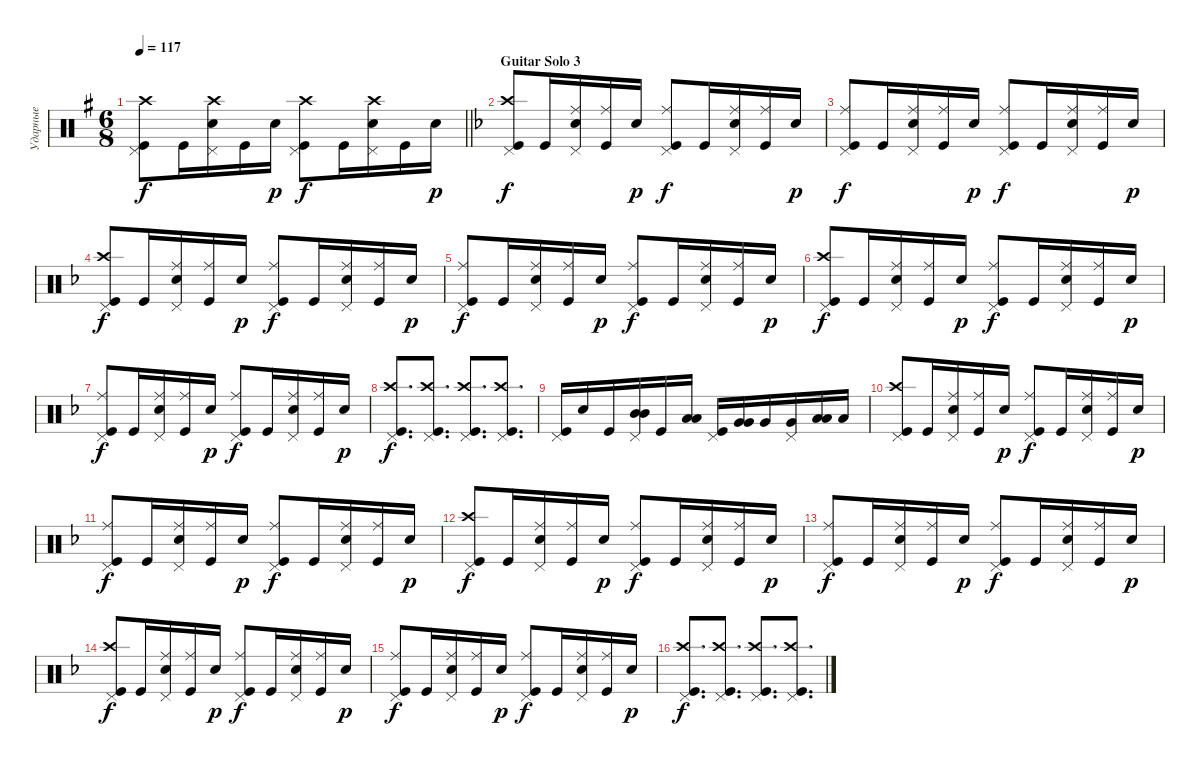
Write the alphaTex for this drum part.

\track ("Ударные" "Ударные") {instrument percussion}
\staff {score}
\articulation defaults
\ts (6 8)
\tempo 117
\clef neutral
\barLineRight lightlight
\ks eminor
("Kick (hit)" "Crash high (hit)" "Pedal Hi-Hat (hit)").8{dy f} "Kick (hit)".16 ("Snare (hit) 2" "Crash high (hit)" "Pedal Hi-Hat (hit)").16 "Kick (hit)".16 "Snare (hit) 2".16{dy p} ("Kick (hit)" "Crash high (hit)" "Pedal Hi-Hat (hit)").8{dy f} "Kick (hit)".16 ("Snare (hit) 2" "Crash high (hit)" "Pedal Hi-Hat (hit)").16 "Kick (hit)".16 "Snare (hit) 2".16{dy p} |
\section ("" "Guitar Solo 3")
\ks dminor
("Kick (hit)" "Crash high (hit)" "Pedal Hi-Hat (hit)").8{dy f} "Kick (hit)".16 ("Snare (hit) 2" "Ride (middle)" "Pedal Hi-Hat (hit)").16 ("Kick (hit)" "Ride (middle)").16 "Snare (hit) 2".16{dy p} ("Kick (hit)" "Ride (middle)" "Pedal Hi-Hat (hit)").8{dy f} "Kick (hit)".16 ("Snare (hit) 2" "Ride (middle)" "Pedal Hi-Hat (hit)").16 ("Kick (hit)" "Ride (middle)").16 "Snare (hit) 2".16{dy p} |
("Kick (hit)" "Ride (middle)" "Pedal Hi-Hat (hit)").8{dy f} "Kick (hit)".16 ("Snare (hit) 2" "Ride (middle)" "Pedal Hi-Hat (hit)").16 ("Kick (hit)" "Ride (middle)").16 "Snare (hit) 2".16{dy p} ("Kick (hit)" "Ride (middle)" "Pedal Hi-Hat (hit)").8{dy f} "Kick (hit)".16 ("Snare (hit) 2" "Ride (middle)" "Pedal Hi-Hat (hit)").16 ("Kick (hit)" "Ride (middle)").16 "Snare (hit) 2".16{dy p} |
("Kick (hit)" "Crash high (hit)" "Pedal Hi-Hat (hit)").8{dy f} "Kick (hit)".16 ("Snare (hit) 2" "Ride (middle)" "Pedal Hi-Hat (hit)").16 ("Kick (hit)" "Ride (middle)").16 "Snare (hit) 2".16{dy p} ("Kick (hit)" "Ride (middle)" "Pedal Hi-Hat (hit)").8{dy f} "Kick (hit)".16 ("Snare (hit) 2" "Ride (middle)" "Pedal Hi-Hat (hit)").16 ("Kick (hit)" "Ride (middle)").16 "Snare (hit) 2".16{dy p} |
("Kick (hit)" "Ride (middle)" "Pedal Hi-Hat (hit)").8{dy f} "Kick (hit)".16 ("Snare (hit) 2" "Ride (middle)" "Pedal Hi-Hat (hit)").16 ("Kick (hit)" "Ride (middle)").16 "Snare (hit) 2".16{dy p} ("Kick (hit)" "Ride (middle)" "Pedal Hi-Hat (hit)").8{dy f} "Kick (hit)".16 ("Snare (hit) 2" "Ride (middle)" "Pedal Hi-Hat (hit)").16 ("Kick (hit)" "Ride (middle)").16 "Snare (hit) 2".16{dy p} |
("Kick (hit)" "Crash high (hit)" "Pedal Hi-Hat (hit)").8{dy f} "Kick (hit)".16 ("Snare (hit) 2" "Ride (middle)" "Pedal Hi-Hat (hit)").16 ("Kick (hit)" "Ride (middle)").16 "Snare (hit) 2".16{dy p} ("Kick (hit)" "Ride (middle)" "Pedal Hi-Hat (hit)").8{dy f} "Kick (hit)".16 ("Snare (hit) 2" "Ride (middle)" "Pedal Hi-Hat (hit)").16 ("Kick (hit)" "Ride (middle)").16 "Snare (hit) 2".16{dy p} |
("Kick (hit)" "Ride (middle)" "Pedal Hi-Hat (hit)").8{dy f} "Kick (hit)".16 ("Snare (hit) 2" "Ride (middle)" "Pedal Hi-Hat (hit)").16 ("Kick (hit)" "Ride (middle)").16 "Snare (hit) 2".16{dy p} ("Kick (hit)" "Ride (middle)" "Pedal Hi-Hat (hit)").8{dy f} "Kick (hit)".16 ("Snare (hit) 2" "Ride (middle)" "Pedal Hi-Hat (hit)").16 ("Kick (hit)" "Ride (middle)").16 "Snare (hit) 2".16{dy p} |
("Kick (hit)" "Crash high (hit)" "Pedal Hi-Hat (hit)").8{d dy f} ("Kick (hit)" "Crash high (hit)" "Pedal Hi-Hat (hit)").8{d} ("Kick (hit)" "Crash high (hit)" "Pedal Hi-Hat (hit)").8{d} ("Kick (hit)" "Crash high (hit)" "Pedal Hi-Hat (hit)").8{d} |
("Kick (hit)" "Pedal Hi-Hat (hit)").16 "Snare (hit) 2".16 "Kick (hit)".16 ("Mid Tom (hit)" "Mid Tom (hit)" "Pedal Hi-Hat (hit)").16 "Kick (hit)".16 ("Low Tom (hit)" "Low Tom (hit)").16 ("Kick (hit)" "Pedal Hi-Hat (hit)").16 ("Very Low Tom (hit)" "Very Low Tom (hit)").16{bd 240} "Very Low Tom (hit)".16 ("Very Low Tom (hit)" "Pedal Hi-Hat (hit)").16 ("Low Floor Tom (hit)" "Low Floor Tom (hit)").16{bd 240} "Low Floor Tom (hit)".16 |
("Kick (hit)" "Crash high (hit)" "Pedal Hi-Hat (hit)").8 "Kick (hit)".16 ("Snare (hit) 2" "Ride (middle)" "Pedal Hi-Hat (hit)").16 ("Kick (hit)" "Ride (middle)").16 "Snare (hit) 2".16{dy p} ("Kick (hit)" "Ride (middle)" "Pedal Hi-Hat (hit)").8{dy f} "Kick (hit)".16 ("Snare (hit) 2" "Ride (middle)" "Pedal Hi-Hat (hit)").16 ("Kick (hit)" "Ride (middle)").16 "Snare (hit) 2".16{dy p} |
("Kick (hit)" "Ride (middle)" "Pedal Hi-Hat (hit)").8{dy f} "Kick (hit)".16 ("Snare (hit) 2" "Ride (middle)" "Pedal Hi-Hat (hit)").16 ("Kick (hit)" "Ride (middle)").16 "Snare (hit) 2".16{dy p} ("Kick (hit)" "Ride (middle)" "Pedal Hi-Hat (hit)").8{dy f} "Kick (hit)".16 ("Snare (hit) 2" "Ride (middle)" "Pedal Hi-Hat (hit)").16 ("Kick (hit)" "Ride (middle)").16 "Snare (hit) 2".16{dy p} |
("Kick (hit)" "Crash high (hit)" "Pedal Hi-Hat (hit)").8{dy f} "Kick (hit)".16 ("Snare (hit) 2" "Ride (middle)" "Pedal Hi-Hat (hit)").16 ("Kick (hit)" "Ride (middle)").16 "Snare (hit) 2".16{dy p} ("Kick (hit)" "Ride (middle)" "Pedal Hi-Hat (hit)").8{dy f} "Kick (hit)".16 ("Snare (hit) 2" "Ride (middle)" "Pedal Hi-Hat (hit)").16 ("Kick (hit)" "Ride (middle)").16 "Snare (hit) 2".16{dy p} |
("Kick (hit)" "Ride (middle)" "Pedal Hi-Hat (hit)").8{dy f} "Kick (hit)".16 ("Snare (hit) 2" "Ride (middle)" "Pedal Hi-Hat (hit)").16 ("Kick (hit)" "Ride (middle)").16 "Snare (hit) 2".16{dy p} ("Kick (hit)" "Ride (middle)" "Pedal Hi-Hat (hit)").8{dy f} "Kick (hit)".16 ("Snare (hit) 2" "Ride (middle)" "Pedal Hi-Hat (hit)").16 ("Kick (hit)" "Ride (middle)").16 "Snare (hit) 2".16{dy p} |
("Kick (hit)" "Crash high (hit)" "Pedal Hi-Hat (hit)").8{dy f} "Kick (hit)".16 ("Snare (hit) 2" "Ride (middle)" "Pedal Hi-Hat (hit)").16 ("Kick (hit)" "Ride (middle)").16 "Snare (hit) 2".16{dy p} ("Kick (hit)" "Ride (middle)" "Pedal Hi-Hat (hit)").8{dy f} "Kick (hit)".16 ("Snare (hit) 2" "Ride (middle)" "Pedal Hi-Hat (hit)").16 ("Kick (hit)" "Ride (middle)").16 "Snare (hit) 2".16{dy p} |
("Kick (hit)" "Ride (middle)" "Pedal Hi-Hat (hit)").8{dy f} "Kick (hit)".16 ("Snare (hit) 2" "Ride (middle)" "Pedal Hi-Hat (hit)").16 ("Kick (hit)" "Ride (middle)").16 "Snare (hit) 2".16{dy p} ("Kick (hit)" "Ride (middle)" "Pedal Hi-Hat (hit)").8{dy f} "Kick (hit)".16 ("Snare (hit) 2" "Ride (middle)" "Pedal Hi-Hat (hit)").16 ("Kick (hit)" "Ride (middle)").16 "Snare (hit) 2".16{dy p} |
("Kick (hit)" "Crash high (hit)" "Pedal Hi-Hat (hit)").8{d dy f} ("Kick (hit)" "Crash high (hit)" "Pedal Hi-Hat (hit)").8{d} ("Kick (hit)" "Crash high (hit)" "Pedal Hi-Hat (hit)").8{d} ("Kick (hit)" "Crash high (hit)" "Pedal Hi-Hat (hit)").8{d}
